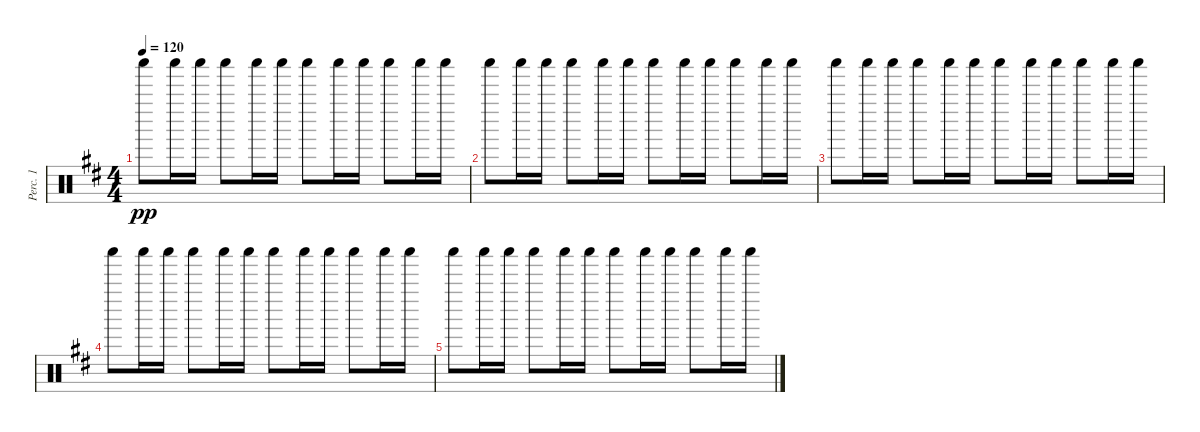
\track ("Perc. 1" "Perc. 1") {instrument percussion}
\staff {score}
\articulation defaults
\ts (4 4)
\tempo 120
\clef neutral
\ks d "Shaker (hit)".8{dy pp} "Shaker (hit)".16 "Shaker (hit)".16 "Shaker (hit)".8 "Shaker (hit)".16 "Shaker (hit)".16 "Shaker (hit)".8 "Shaker (hit)".16 "Shaker (hit)".16 "Shaker (hit)".8 "Shaker (hit)".16 "Shaker (hit)".16
|
"Shaker (hit)".8 "Shaker (hit)".16 "Shaker (hit)".16 "Shaker (hit)".8 "Shaker (hit)".16 "Shaker (hit)".16 "Shaker (hit)".8 "Shaker (hit)".16 "Shaker (hit)".16 "Shaker (hit)".8 "Shaker (hit)".16 "Shaker (hit)".16 |
"Shaker (hit)".8 "Shaker (hit)".16 "Shaker (hit)".16 "Shaker (hit)".8 "Shaker (hit)".16 "Shaker (hit)".16 "Shaker (hit)".8 "Shaker (hit)".16 "Shaker (hit)".16 "Shaker (hit)".8 "Shaker (hit)".16 "Shaker (hit)".16 |
"Shaker (hit)".8 "Shaker (hit)".16 "Shaker (hit)".16 "Shaker (hit)".8 "Shaker (hit)".16 "Shaker (hit)".16 "Shaker (hit)".8 "Shaker (hit)".16 "Shaker (hit)".16 "Shaker (hit)".8 "Shaker (hit)".16 "Shaker (hit)".16 |
"Shaker (hit)".8 "Shaker (hit)".16 "Shaker (hit)".16 "Shaker (hit)".8 "Shaker (hit)".16 "Shaker (hit)".16 "Shaker (hit)".8 "Shaker (hit)".16 "Shaker (hit)".16 "Shaker (hit)".8 "Shaker (hit)".16 "Shaker (hit)".16
